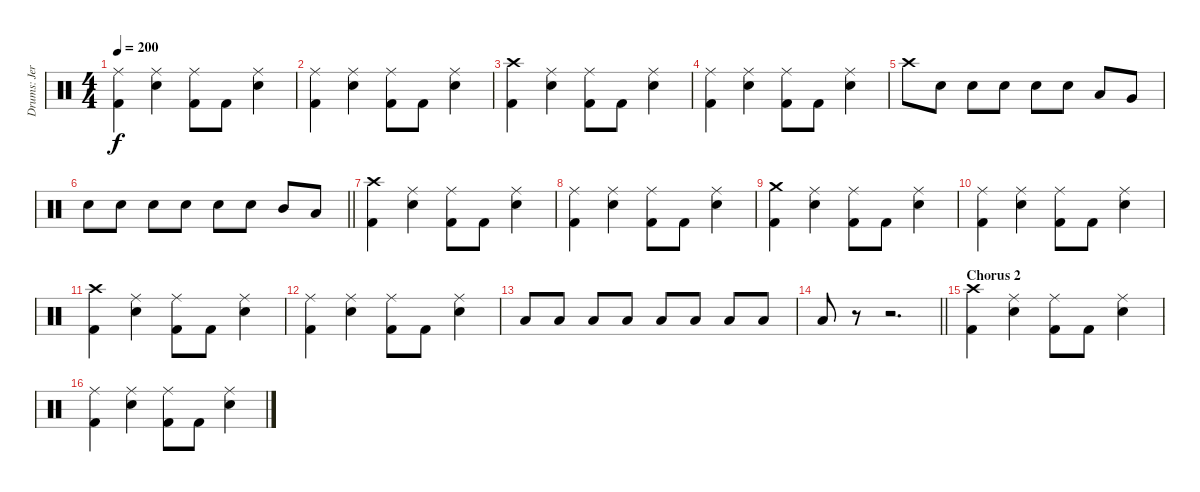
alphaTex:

\track ("Drums: Jere Luokkamäki" "Drums: Jer") {instrument percussion}
\staff {score}
\articulation defaults
\ts (4 4)
\tempo 200
\clef neutral
\ks aminor
("Ride (middle)" "Kick (hit) 2").4{dy f} ("Ride (middle)" "Electric Snare (hit)").4 ("Ride (middle)" "Kick (hit) 2").8 "Kick (hit) 2".8 ("Ride (middle)" "Electric Snare (hit)").4 |
("Ride (middle)" "Kick (hit) 2").4 ("Ride (middle)" "Electric Snare (hit)").4 ("Ride (middle)" "Kick (hit) 2").8 "Kick (hit) 2".8 ("Ride (middle)" "Electric Snare (hit)").4 |
("Crash high (hit)" "Kick (hit) 2").4 ("Ride (middle)" "Electric Snare (hit)").4 ("Ride (middle)" "Kick (hit) 2").8 "Kick (hit) 2".8 ("Ride (middle)" "Electric Snare (hit)").4 |
("Ride (middle)" "Kick (hit) 2").4 ("Ride (middle)" "Electric Snare (hit)").4 ("Ride (middle)" "Kick (hit) 2").8 "Kick (hit) 2".8 ("Ride (middle)" "Electric Snare (hit)").4 |
"Crash high (hit)".8 "Electric Snare (hit)".8 "Electric Snare (hit)".8 "Electric Snare (hit)".8 "Electric Snare (hit)".8 "Electric Snare (hit)".8 "Low Tom (hit)".8 "Very Low Tom (hit)".8 |
\barLineRight lightlight "Electric Snare (hit)".8 "Electric Snare (hit)".8 "Electric Snare (hit)".8 "Electric Snare (hit)".8 "Electric Snare (hit)".8 "Electric Snare (hit)".8 "Mid Tom (hit)".8 "Low Tom (hit)".8
|
("Crash high (hit)" "Kick (hit) 2").4 ("Ride (middle)" "Electric Snare (hit)").4 ("Ride (middle)" "Kick (hit) 2").8 "Kick (hit) 2".8 ("Ride (middle)" "Electric Snare (hit)").4 |
("Ride (middle)" "Kick (hit) 2").4 ("Ride (middle)" "Electric Snare (hit)").4 ("Ride (middle)" "Kick (hit) 2").8 "Kick (hit) 2".8 ("Ride (middle)" "Electric Snare (hit)").4 |
("Crash medium (hit)" "Kick (hit) 2").4 ("Ride (middle)" "Electric Snare (hit)").4 ("Ride (middle)" "Kick (hit) 2").8 "Kick (hit) 2".8 ("Ride (middle)" "Electric Snare (hit)").4 |
("Ride (middle)" "Kick (hit) 2").4 ("Ride (middle)" "Electric Snare (hit)").4 ("Ride (middle)" "Kick (hit) 2").8 "Kick (hit) 2".8 ("Ride (middle)" "Electric Snare (hit)").4 |
("Crash high (hit)" "Kick (hit) 2").4 ("Ride (middle)" "Electric Snare (hit)").4 ("Ride (middle)" "Kick (hit) 2").8 "Kick (hit) 2".8 ("Ride (middle)" "Electric Snare (hit)").4 |
("Ride (middle)" "Kick (hit) 2").4 ("Ride (middle)" "Electric Snare (hit)").4 ("Ride (middle)" "Kick (hit) 2").8 "Kick (hit) 2".8 ("Ride (middle)" "Electric Snare (hit)").4 |
"Low Tom (hit)".8 "Low Tom (hit)".8 "Low Tom (hit)".8 "Low Tom (hit)".8 "Low Tom (hit)".8 "Low Tom (hit)".8 "Low Tom (hit)".8 "Low Tom (hit)".8 |
\barLineRight lightlight "Low Tom (hit)".8
r.8 r.2{d} |
\section ("" "Chorus 2")
("Crash high (hit)" "Kick (hit) 2").4 ("Ride (middle)" "Electric Snare (hit)").4 ("Ride (middle)" "Kick (hit) 2").8 "Kick (hit) 2".8 ("Ride (middle)" "Electric Snare (hit)").4 |
("Ride (middle)" "Kick (hit) 2").4 ("Ride (middle)" "Electric Snare (hit)").4 ("Ride (middle)" "Kick (hit) 2").8 "Kick (hit) 2".8 ("Ride (middle)" "Electric Snare (hit)").4
